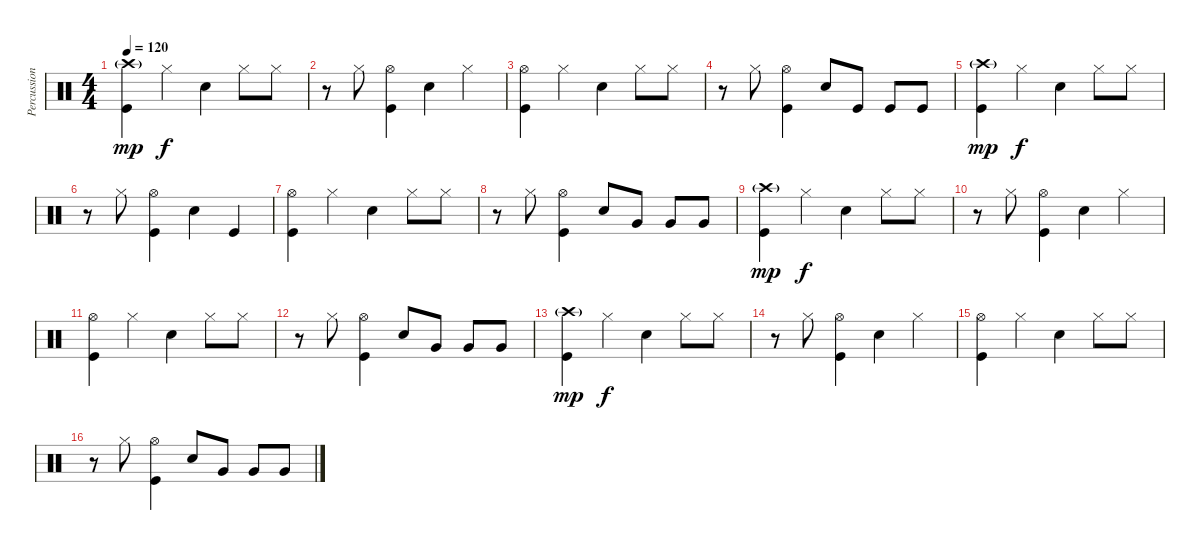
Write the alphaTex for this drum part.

\track ("Percussion" "Percussion") {instrument percussion}
\staff {score}
\articulation defaults
\ts (4 4)
\tempo 120
\clef neutral
\ks c
("Kick (hit)" "Crash high (hit)"{g}).4{dy mp} "Hi-Hat (closed)".4{dy f} "Snare (hit) 2".4 "Hi-Hat (closed)".8 "Hi-Hat (closed)".8 |
r.8 "Hi-Hat (closed)".8 ("Kick (hit)" "Hi-Hat (open)").4 "Snare (hit) 2".4 "Hi-Hat (closed)".4 |
("Kick (hit)" "Hi-Hat (open)").4 "Hi-Hat (closed)".4 "Snare (hit) 2".4 "Hi-Hat (closed)".8 "Hi-Hat (closed)".8 |
r.8 "Hi-Hat (closed)".8 ("Kick (hit)" "Hi-Hat (open)").4 "Snare (hit) 2".8 "Kick (hit)".8 "Kick (hit)".8 "Kick (hit)".8 |
("Kick (hit)" "Crash high (hit)"{g}).4{dy mp} "Hi-Hat (closed)".4{dy f} "Snare (hit) 2".4 "Hi-Hat (closed)".8 "Hi-Hat (closed)".8 |
r.8 "Hi-Hat (closed)".8 ("Kick (hit)" "Hi-Hat (open)").4 "Snare (hit) 2".4 "Kick (hit)".4 |
("Kick (hit)" "Hi-Hat (open)").4 "Hi-Hat (closed)".4 "Snare (hit) 2".4 "Hi-Hat (closed)".8 "Hi-Hat (closed)".8 |
r.8 "Hi-Hat (closed)".8 ("Kick (hit)" "Hi-Hat (open)").4 "Snare (hit) 2".8 "Very Low Tom (hit)".8 "Very Low Tom (hit)".8 "Very Low Tom (hit)".8 |
("Kick (hit)" "Crash high (hit)"{g}).4{dy mp} "Hi-Hat (closed)".4{dy f} "Snare (hit) 2".4 "Hi-Hat (closed)".8 "Hi-Hat (closed)".8 |
r.8 "Hi-Hat (closed)".8 ("Kick (hit)" "Hi-Hat (open)").4 "Snare (hit) 2".4 "Hi-Hat (closed)".4 |
("Kick (hit)" "Hi-Hat (open)").4 "Hi-Hat (closed)".4 "Snare (hit) 2".4 "Hi-Hat (closed)".8 "Hi-Hat (closed)".8 |
r.8 "Hi-Hat (closed)".8 ("Kick (hit)" "Hi-Hat (open)").4 "Snare (hit) 2".8 "Very Low Tom (hit)".8 "Very Low Tom (hit)".8 "Very Low Tom (hit)".8 |
("Kick (hit)" "Crash high (hit)"{g}).4{dy mp} "Hi-Hat (closed)".4{dy f} "Snare (hit) 2".4 "Hi-Hat (closed)".8 "Hi-Hat (closed)".8 |
r.8 "Hi-Hat (closed)".8 ("Kick (hit)" "Hi-Hat (open)").4 "Snare (hit) 2".4 "Hi-Hat (closed)".4 |
("Kick (hit)" "Hi-Hat (open)").4 "Hi-Hat (closed)".4 "Snare (hit) 2".4 "Hi-Hat (closed)".8 "Hi-Hat (closed)".8 |
r.8 "Hi-Hat (closed)".8 ("Kick (hit)" "Hi-Hat (open)").4 "Snare (hit) 2".8 "Very Low Tom (hit)".8 "Very Low Tom (hit)".8 "Very Low Tom (hit)".8
